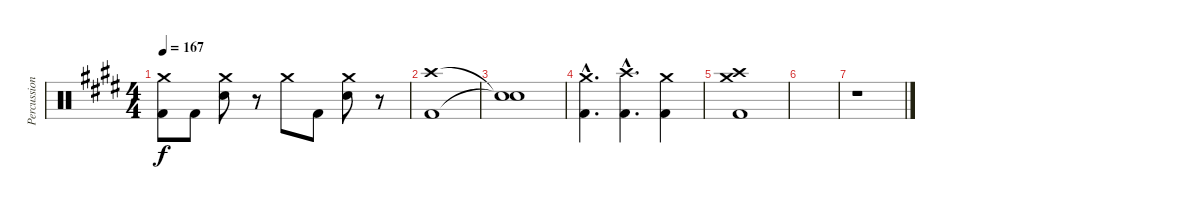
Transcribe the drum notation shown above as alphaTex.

\track ("Percussion" "Percussion") {instrument percussion}
\staff {score}
\articulation defaults
\ts (4 4)
\tempo 167
\clef neutral
\ks e
("Crash medium (hit)" "Kick (hit) 2").8{dy f} "Kick (hit) 2".8 ("Crash medium (hit)" "Electric Snare (hit)").8 r.8 "Crash medium (hit)".8 "Kick (hit) 2".8 ("Crash medium (hit)" "Electric Snare (hit)").8 r.8 |
("Crash high (hit)" "Kick (hit) 2").1 |
("Snare (hit)"{t} "Snare (hit)"{t}).1 |
("Crash medium (hit)"{hac} "Kick (hit) 2"{hac}).4{d} ("Crash high (hit)"{hac} "Kick (hit) 2"{hac}).4{d} ("Crash medium (hit)" "Kick (hit) 2").4 |
("Crash high (hit)" "Crash medium (hit)" "Kick (hit) 2").1 |
|
r.1
